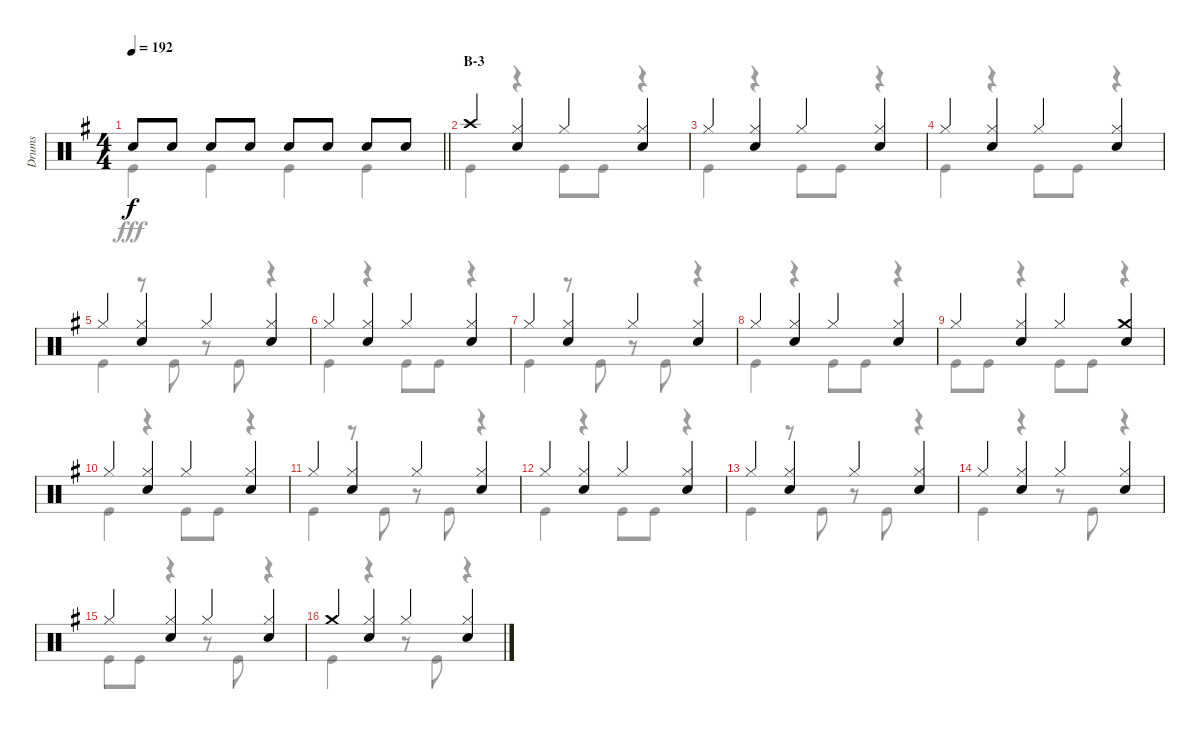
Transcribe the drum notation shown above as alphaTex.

\track ("Drums" "Drums") {instrument percussion}
\staff {score}
\articulation defaults
\voice
\ts (4 4)
\tempo 192
\clef neutral
\barLineRight lightlight
\ks g "Snare (hit) 2".8{dy f} "Snare (hit) 2".8 "Snare (hit) 2".8 "Snare (hit) 2".8 "Snare (hit) 2".8 "Snare (hit) 2".8 "Snare (hit) 2".8 "Snare (hit) 2".8
|
\section ("" "B-3")
"Crash high (hit)".4 ("Hi-Hat (closed)" "Snare (hit) 2").4 "Hi-Hat (closed)".4 ("Hi-Hat (closed)" "Snare (hit) 2").4 |
"Hi-Hat (closed)".4 ("Hi-Hat (closed)" "Snare (hit) 2").4 "Hi-Hat (closed)".4 ("Hi-Hat (closed)" "Snare (hit) 2").4 |
"Hi-Hat (closed)".4 ("Hi-Hat (closed)" "Snare (hit) 2").4 "Hi-Hat (closed)".4 ("Hi-Hat (closed)" "Snare (hit) 2").4 |
"Hi-Hat (closed)".4 ("Hi-Hat (closed)" "Snare (hit) 2").4 "Hi-Hat (closed)".4 ("Hi-Hat (closed)" "Snare (hit) 2").4 |
"Hi-Hat (closed)".4 ("Hi-Hat (closed)" "Snare (hit) 2").4 "Hi-Hat (closed)".4 ("Hi-Hat (closed)" "Snare (hit) 2").4 |
"Hi-Hat (closed)".4 ("Hi-Hat (closed)" "Snare (hit) 2").4 "Hi-Hat (closed)".4 ("Hi-Hat (closed)" "Snare (hit) 2").4 |
"Hi-Hat (closed)".4 ("Hi-Hat (closed)" "Snare (hit) 2").4 "Hi-Hat (closed)".4 ("Hi-Hat (closed)" "Snare (hit) 2").4 |
"Hi-Hat (closed)".4 ("Hi-Hat (closed)" "Snare (hit) 2").4 "Hi-Hat (closed)".4 ("Crash medium (hit)" "Snare (hit) 2").4 |
"Hi-Hat (closed)".4 ("Hi-Hat (closed)" "Snare (hit) 2").4 "Hi-Hat (closed)".4 ("Hi-Hat (closed)" "Snare (hit) 2").4 |
"Hi-Hat (closed)".4 ("Hi-Hat (closed)" "Snare (hit) 2").4 "Hi-Hat (closed)".4 ("Hi-Hat (closed)" "Snare (hit) 2").4 |
"Hi-Hat (closed)".4 ("Hi-Hat (closed)" "Snare (hit) 2").4 "Hi-Hat (closed)".4 ("Hi-Hat (closed)" "Snare (hit) 2").4 |
"Hi-Hat (closed)".4 ("Hi-Hat (closed)" "Snare (hit) 2").4 "Hi-Hat (closed)".4 ("Hi-Hat (closed)" "Snare (hit) 2").4 |
"Hi-Hat (closed)".4 ("Hi-Hat (closed)" "Snare (hit) 2").4 "Hi-Hat (closed)".4 ("Hi-Hat (closed)" "Snare (hit) 2").4 |
"Hi-Hat (closed)".4 ("Hi-Hat (closed)" "Snare (hit) 2").4 "Hi-Hat (closed)".4 ("Hi-Hat (closed)" "Snare (hit) 2").4 |
"Crash medium (hit)".4 ("Hi-Hat (closed)" "Snare (hit) 2").4 "Hi-Hat (closed)".4 ("Hi-Hat (closed)" "Snare (hit) 2").4
\voice
\clef neutral
\ottava regular
\simile none
\barLineRight lightlight
\ks g "Kick (hit)".4{dy fff} "Kick (hit)".4 "Kick (hit)".4 "Kick (hit)".4
|
"Kick (hit)".4 r.4 "Kick (hit)".8 "Kick (hit)".8 r.4 |
"Kick (hit)".4 r.4 "Kick (hit)".8 "Kick (hit)".8 r.4 |
"Kick (hit)".4 r.4 "Kick (hit)".8 "Kick (hit)".8 r.4 |
"Kick (hit)".4 r.8 "Kick (hit)".8 r.8 "Kick (hit)".8 r.4 |
"Kick (hit)".4 r.4 "Kick (hit)".8 "Kick (hit)".8 r.4 |
"Kick (hit)".4 r.8 "Kick (hit)".8 r.8 "Kick (hit)".8 r.4 |
"Kick (hit)".4 r.4 "Kick (hit)".8 "Kick (hit)".8 r.4 |
"Kick (hit)".8 "Kick (hit)".8 r.4 "Kick (hit)".8 "Kick (hit)".8 r.4 |
"Kick (hit)".4 r.4 "Kick (hit)".8 "Kick (hit)".8 r.4 |
"Kick (hit)".4 r.8 "Kick (hit)".8 r.8 "Kick (hit)".8 r.4 |
"Kick (hit)".4 r.4 "Kick (hit)".8 "Kick (hit)".8 r.4 |
"Kick (hit)".4 r.8 "Kick (hit)".8 r.8 "Kick (hit)".8 r.4 |
"Kick (hit)".4 r.4 r.8 "Kick (hit)".8 r.4 |
"Kick (hit)".8 "Kick (hit)".8 r.4 r.8 "Kick (hit)".8 r.4 |
"Kick (hit)".4 r.4 r.8 "Kick (hit)".8 r.4
